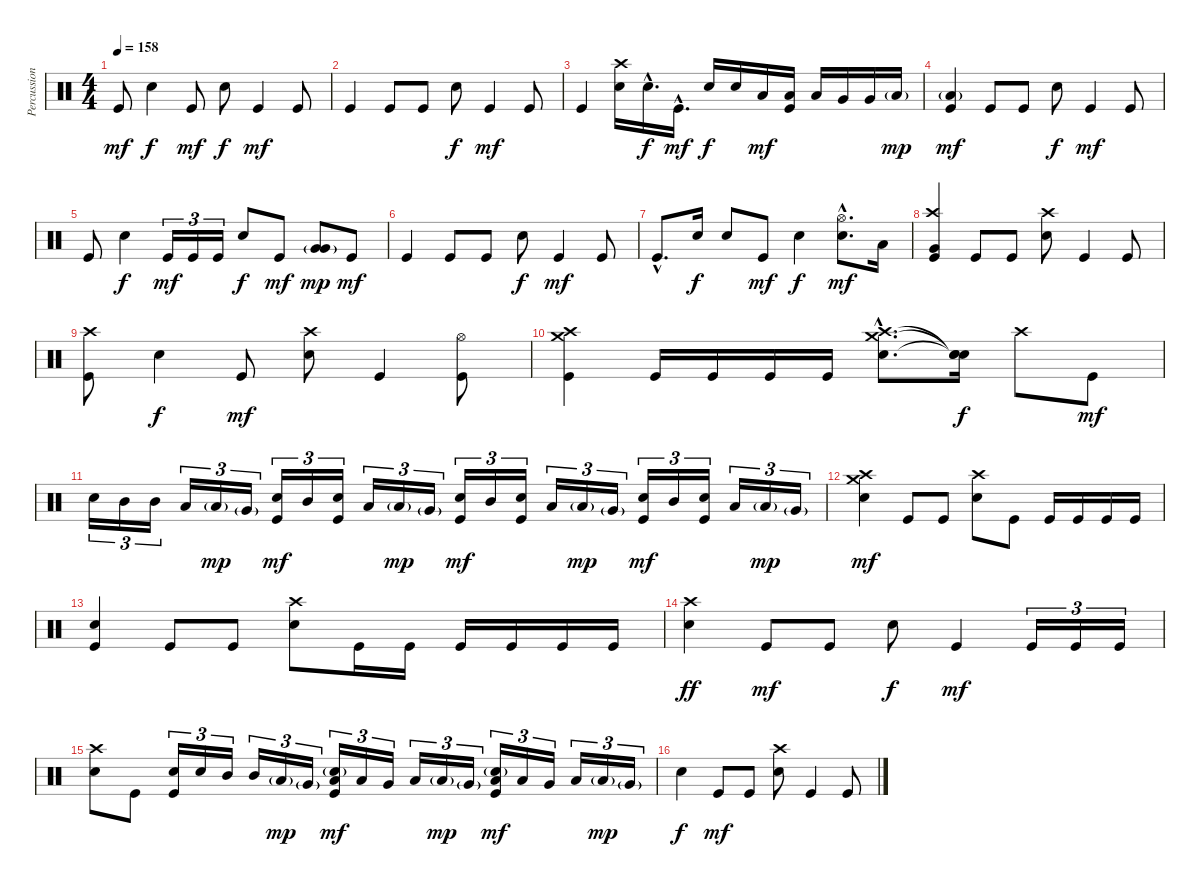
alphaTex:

\track ("Percussion" "Percussion") {instrument percussion}
\staff {score}
\articulation defaults
\ts (4 4)
\tempo 158
\clef neutral
\ks c "Kick (hit)".8{dy mf} "Electric Snare (hit)".4{dy f} "Kick (hit)".8{dy mf} "Electric Snare (hit)".8{dy f} "Kick (hit)".4{dy mf} "Kick (hit)".8
|
"Kick (hit)".4 "Kick (hit)".8 "Kick (hit)".8 "Electric Snare (hit)".8{dy f} "Kick (hit)".4{dy mf} "Kick (hit)".8 |
"Kick (hit)".4 ("Crash high (hit)" "Electric Snare (hit)").16 "Electric Snare (hit)"{hac}.16{d dy f} "Kick (hit)"{hac}.16{d dy mf} "Electric Snare (hit)".16{dy f} "Electric Snare (hit)".16 "Low Tom (hit)".16{dy mf} ("Low Tom (hit)" "Kick (hit)").16 "Low Tom (hit)".16 "Very Low Tom (hit)".16 "Very Low Tom (hit)".16 "Low Floor Tom (hit)"{g}.16{dy mp} |
("Low Floor Tom (hit)"{g} "Kick (hit)").4{dy mf} "Kick (hit)".8 "Kick (hit)".8 "Electric Snare (hit)".8{dy f} "Kick (hit)".4{dy mf} "Kick (hit)".8 |
"Kick (hit)".8 "Electric Snare (hit)".4{dy f} "Kick (hit)".16{tu (3 2) dy mf} "Kick (hit)".16{tu (3 2)} "Kick (hit)".16{tu (3 2)} "Electric Snare (hit)".8{dy f} "Kick (hit)".8{dy mf} ("Very Low Tom (hit)"{g} "Very Low Tom (hit)").8{dy mp} "Kick (hit)".8{dy mf} |
"Kick (hit)".4 "Kick (hit)".8 "Kick (hit)".8 "Electric Snare (hit)".8{dy f} "Kick (hit)".4{dy mf} "Kick (hit)".8 |
"Kick (hit)"{hac}.8{d} "Electric Snare (hit)".16{dy f} "Electric Snare (hit)".8 "Kick (hit)".8{dy mf} "Electric Snare (hit)".4{dy f} ("Hi-Hat (open)"{hac} "Electric Snare (hit)"{hac}).8{d dy mf} "Low Tom (hit)".16 |
("Crash high (hit)" "Very Low Tom (hit)" "Kick (hit)").4 "Kick (hit)".8 "Kick (hit)".8 ("Crash high (hit)" "Electric Snare (hit)").8 "Kick (hit)".4 "Kick (hit)".8 |
("Crash high (hit)" "Kick (hit)").8 "Electric Snare (hit)".4{dy f} "Kick (hit)".8{dy mf} ("Crash high (hit)" "Electric Snare (hit)").8 "Kick (hit)".4 ("Hi-Hat (open)" "Kick (hit)").8 |
("Crash medium (hit)" "Crash high (hit)" "Kick (hit)").4 "Kick (hit)".16 "Kick (hit)".16 "Kick (hit)".16 "Kick (hit)".16 ("Crash medium (hit)"{hac} "Crash high (hit)"{hac} "Electric Snare (hit)"{hac}).8{d} ("Snare (hit)"{t} "Snare (hit)"{t} "Snare (hit)"{t}).16{dy f} "Crash high (hit)".8 "Kick (hit)".8{dy mf} |
"Electric Snare (hit)".16{tu (3 2) volume 16} "Mid Tom (hit)".16{tu (3 2)} "Mid Tom (hit)".16{tu (3 2)} "Low Tom (hit)".16{tu (3 2)} "Low Tom (hit)"{g}.16{tu (3 2) dy mp} "Very Low Tom (hit)"{g}.16{tu (3 2)} ("Electric Snare (hit)" "Kick (hit)").16{tu (3 2) dy mf} "Mid Tom (hit)".16{tu (3 2)} ("Electric Snare (hit)" "Kick (hit)").16{tu (3 2)} "Low Tom (hit)".16{tu (3 2)} "Low Tom (hit)"{g}.16{tu (3 2) dy mp} "Very Low Tom (hit)"{g}.16{tu (3 2)} ("Electric Snare (hit)" "Kick (hit)").16{tu (3 2) dy mf} "Mid Tom (hit)".16{tu (3 2)} ("Electric Snare (hit)" "Kick (hit)").16{tu (3 2)} "Low Tom (hit)".16{tu (3 2)} "Low Tom (hit)"{g}.16{tu (3 2) dy mp} "Very Low Tom (hit)"{g}.16{tu (3 2)} ("Electric Snare (hit)" "Kick (hit)").16{tu (3 2) dy mf} "Mid Tom (hit)".16{tu (3 2)} ("Electric Snare (hit)" "Kick (hit)").16{tu (3 2)} "Low Tom (hit)".16{tu (3 2)} "Low Tom (hit)"{g}.16{tu (3 2) dy mp} "Very Low Tom (hit)"{g}.16{tu (3 2)} |
("Crash medium (hit)" "Crash high (hit)" "Electric Snare (hit)").4{dy mf volume 14} "Kick (hit)".8 "Kick (hit)".8 ("Crash high (hit)" "Electric Snare (hit)").8 "Kick (hit)".8 "Kick (hit)".16 "Kick (hit)".16 "Kick (hit)".16 "Kick (hit)".16 |
("Electric Snare (hit)" "Kick (hit)").4 "Kick (hit)".8 "Kick (hit)".8 ("Crash high (hit)" "Electric Snare (hit)").8 "Kick (hit)".16 "Kick (hit)".16 "Kick (hit)".16 "Kick (hit)".16 "Kick (hit)".16 "Kick (hit)".16 |
("Crash high (hit)" "Electric Snare (hit)").4{dy ff} "Kick (hit)".8{dy mf} "Kick (hit)".8 "Electric Snare (hit)".8{dy f} "Kick (hit)".4{dy mf} "Kick (hit)".16{tu (3 2)} "Kick (hit)".16{tu (3 2)} "Kick (hit)".16{tu (3 2)} |
("Crash high (hit)" "Electric Snare (hit)").8 "Kick (hit)".8 ("Electric Snare (hit)" "Kick (hit)").16{tu (3 2) volume 16} "Electric Snare (hit)".16{tu (3 2)} "Mid Tom (hit)".16{tu (3 2)} "Mid Tom (hit)".16{tu (3 2)} "Low Tom (hit)"{g}.16{tu (3 2) dy mp} "Very Low Tom (hit)"{g}.16{tu (3 2)} ("Electric Snare (hit)"{g} "Low Tom (hit)" "Kick (hit)").16{tu (3 2) dy mf} "Low Tom (hit)".16{tu (3 2)} "Very Low Tom (hit)".16{tu (3 2)} "Low Tom (hit)".16{tu (3 2)} "Low Tom (hit)"{g}.16{tu (3 2) dy mp} "Very Low Tom (hit)"{g}.16{tu (3 2)} ("Electric Snare (hit)"{g} "Low Tom (hit)" "Kick (hit)").16{tu (3 2) dy mf} "Low Tom (hit)".16{tu (3 2)} "Very Low Tom (hit)".16{tu (3 2)} "Low Tom (hit)".16{tu (3 2)} "Low Tom (hit)"{g}.16{tu (3 2) dy mp} "Very Low Tom (hit)"{g}.16{tu (3 2)} |
"Electric Snare (hit)".4{dy f} "Kick (hit)".8{dy mf} "Kick (hit)".8 ("Crash high (hit)" "Electric Snare (hit)").8 "Kick (hit)".4 "Kick (hit)".8
